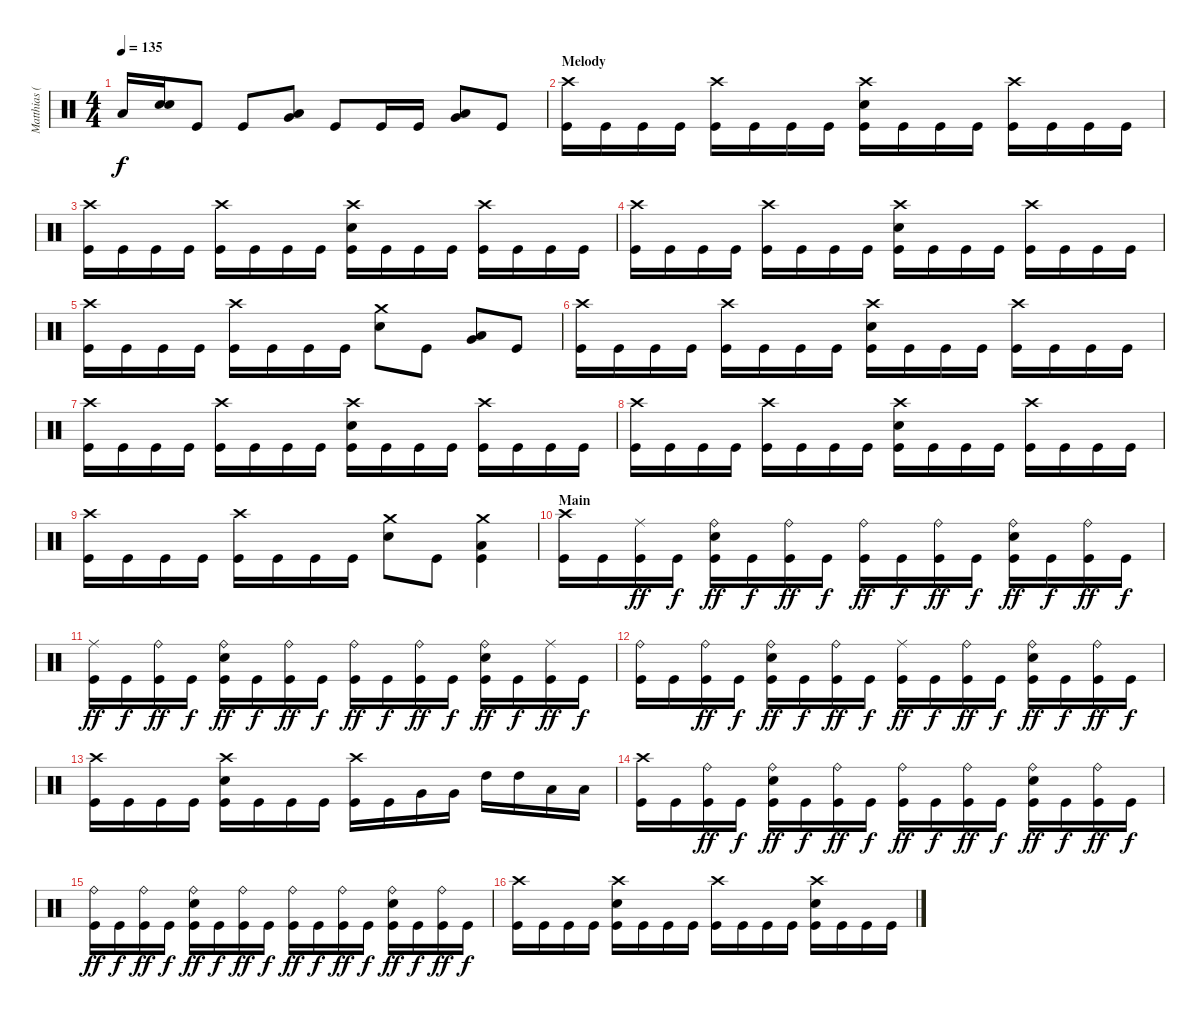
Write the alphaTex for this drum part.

\track ("Matthias (Drums)" "Matthias (") {instrument percussion}
\staff {score}
\articulation defaults
\ts (4 4)
\tempo 135
\clef neutral
\ks c "Low Tom (hit)".16{dy f}
("Electric Snare (hit)" "Electric Snare (hit)").16{bu 120} "Kick (hit)".8 "Kick (hit)".8 ("Low Tom (hit)" "Very Low Tom (hit)").8{bu 120} "Kick (hit)".8 "Kick (hit)".16 "Kick (hit)".16 ("Low Tom (hit)" "Very Low Tom (hit)").8{bu 120} "Kick (hit)".8 |
\section ("" "Melody")
("Crash high (hit)" "Kick (hit)").16 "Kick (hit)".16 "Kick (hit)".16 "Kick (hit)".16 ("Crash high (hit)" "Kick (hit)").16 "Kick (hit)".16 "Kick (hit)".16 "Kick (hit)".16 ("Crash high (hit)" "Electric Snare (hit)" "Kick (hit)").16 "Kick (hit)".16 "Kick (hit)".16 "Kick (hit)".16 ("Crash high (hit)" "Kick (hit)").16 "Kick (hit)".16 "Kick (hit)".16 "Kick (hit)".16 |
("Crash high (hit)" "Kick (hit)").16 "Kick (hit)".16 "Kick (hit)".16 "Kick (hit)".16 ("Crash high (hit)" "Kick (hit)").16 "Kick (hit)".16 "Kick (hit)".16 "Kick (hit)".16 ("Crash high (hit)" "Electric Snare (hit)" "Kick (hit)").16 "Kick (hit)".16 "Kick (hit)".16 "Kick (hit)".16 ("Crash high (hit)" "Kick (hit)").16 "Kick (hit)".16 "Kick (hit)".16 "Kick (hit)".16 |
("Crash high (hit)" "Kick (hit)").16 "Kick (hit)".16 "Kick (hit)".16 "Kick (hit)".16 ("Crash high (hit)" "Kick (hit)").16 "Kick (hit)".16 "Kick (hit)".16 "Kick (hit)".16 ("Crash high (hit)" "Electric Snare (hit)" "Kick (hit)").16 "Kick (hit)".16 "Kick (hit)".16 "Kick (hit)".16 ("Crash high (hit)" "Kick (hit)").16 "Kick (hit)".16 "Kick (hit)".16 "Kick (hit)".16 |
("Crash high (hit)" "Kick (hit)").16 "Kick (hit)".16 "Kick (hit)".16 "Kick (hit)".16 ("Crash high (hit)" "Kick (hit)").16 "Kick (hit)".16 "Kick (hit)".16 "Kick (hit)".16 ("Crash medium (hit)" "Electric Snare (hit)").8 "Kick (hit)".8 ("Low Tom (hit)" "Very Low Tom (hit)").8{bu 120} "Kick (hit)".8 |
("Crash high (hit)" "Kick (hit)").16 "Kick (hit)".16 "Kick (hit)".16 "Kick (hit)".16 ("Crash high (hit)" "Kick (hit)").16 "Kick (hit)".16 "Kick (hit)".16 "Kick (hit)".16 ("Crash high (hit)" "Electric Snare (hit)" "Kick (hit)").16 "Kick (hit)".16 "Kick (hit)".16 "Kick (hit)".16 ("Crash high (hit)" "Kick (hit)").16 "Kick (hit)".16 "Kick (hit)".16 "Kick (hit)".16 |
("Crash high (hit)" "Kick (hit)").16 "Kick (hit)".16 "Kick (hit)".16 "Kick (hit)".16 ("Crash high (hit)" "Kick (hit)").16 "Kick (hit)".16 "Kick (hit)".16 "Kick (hit)".16 ("Crash high (hit)" "Electric Snare (hit)" "Kick (hit)").16 "Kick (hit)".16 "Kick (hit)".16 "Kick (hit)".16 ("Crash high (hit)" "Kick (hit)").16 "Kick (hit)".16 "Kick (hit)".16 "Kick (hit)".16 |
("Crash high (hit)" "Kick (hit)").16 "Kick (hit)".16 "Kick (hit)".16 "Kick (hit)".16 ("Crash high (hit)" "Kick (hit)").16 "Kick (hit)".16 "Kick (hit)".16 "Kick (hit)".16 ("Crash high (hit)" "Electric Snare (hit)" "Kick (hit)").16 "Kick (hit)".16 "Kick (hit)".16 "Kick (hit)".16 ("Crash high (hit)" "Kick (hit)").16 "Kick (hit)".16 "Kick (hit)".16 "Kick (hit)".16 |
("Crash high (hit)" "Kick (hit)").16 "Kick (hit)".16 "Kick (hit)".16 "Kick (hit)".16 ("Crash high (hit)" "Kick (hit)").16 "Kick (hit)".16 "Kick (hit)".16 "Kick (hit)".16 ("Crash medium (hit)" "Electric Snare (hit)").8 "Kick (hit)".8 ("Crash medium (hit)" "Low Tom (hit)" "Kick (hit)").4 |
\section ("" "Main")
("Crash high (hit)" "Kick (hit)").16 "Kick (hit)".16 ("Ride (middle)" "Kick (hit)").16{dy ff} "Kick (hit)".16{dy f} ("Ride (bell)" "Electric Snare (hit)" "Kick (hit)").16{dy ff} "Kick (hit)".16{dy f} ("Ride (bell)" "Kick (hit)").16{dy ff} "Kick (hit)".16{dy f} ("Ride (bell)" "Kick (hit)").16{dy ff} "Kick (hit)".16{dy f} ("Ride (bell)" "Kick (hit)").16{dy ff} "Kick (hit)".16{dy f} ("Ride (bell)" "Electric Snare (hit)" "Kick (hit)").16{dy ff} "Kick (hit)".16{dy f} ("Ride (bell)" "Kick (hit)").16{dy ff} "Kick (hit)".16{dy f} |
("Ride (middle)" "Kick (hit)").16{dy ff} "Kick (hit)".16{dy f} ("Ride (bell)" "Kick (hit)").16{dy ff} "Kick (hit)".16{dy f} ("Ride (bell)" "Electric Snare (hit)" "Kick (hit)").16{dy ff} "Kick (hit)".16{dy f} ("Ride (bell)" "Kick (hit)").16{dy ff} "Kick (hit)".16{dy f} ("Ride (bell)" "Kick (hit)").16{dy ff} "Kick (hit)".16{dy f} ("Ride (bell)" "Kick (hit)").16{dy ff} "Kick (hit)".16{dy f} ("Ride (bell)" "Electric Snare (hit)" "Kick (hit)").16{dy ff} "Kick (hit)".16{dy f} ("Ride (middle)" "Kick (hit)").16{dy ff} "Kick (hit)".16{dy f} |
("Ride (bell)" "Kick (hit)").16 "Kick (hit)".16 ("Ride (bell)" "Kick (hit)").16{dy ff} "Kick (hit)".16{dy f} ("Ride (bell)" "Electric Snare (hit)" "Kick (hit)").16{dy ff} "Kick (hit)".16{dy f} ("Ride (bell)" "Kick (hit)").16{dy ff} "Kick (hit)".16{dy f} ("Ride (middle)" "Kick (hit)").16{dy ff} "Kick (hit)".16{dy f} ("Ride (bell)" "Kick (hit)").16{dy ff} "Kick (hit)".16{dy f} ("Ride (bell)" "Electric Snare (hit)" "Kick (hit)").16{dy ff} "Kick (hit)".16{dy f} ("Ride (bell)" "Kick (hit)").16{dy ff} "Kick (hit)".16{dy f} |
("Crash high (hit)" "Kick (hit)").16 "Kick (hit)".16 "Kick (hit)".16 "Kick (hit)".16 ("Crash high (hit)" "Electric Snare (hit)" "Kick (hit)").16 "Kick (hit)".16 "Kick (hit)".16 "Kick (hit)".16 ("Crash high (hit)" "Kick (hit)").16 "Kick (hit)".16 "Very Low Tom (hit)".16 "Very Low Tom (hit)".16 "High Tom (hit)".16 "High Tom (hit)".16 "Low Tom (hit)".16 "Low Tom (hit)".16 |
("Crash high (hit)" "Kick (hit)").16 "Kick (hit)".16 ("Ride (bell)" "Kick (hit)").16{dy ff} "Kick (hit)".16{dy f} ("Ride (bell)" "Electric Snare (hit)" "Kick (hit)").16{dy ff} "Kick (hit)".16{dy f} ("Ride (bell)" "Kick (hit)").16{dy ff} "Kick (hit)".16{dy f} ("Ride (bell)" "Kick (hit)").16{dy ff} "Kick (hit)".16{dy f} ("Ride (bell)" "Kick (hit)").16{dy ff} "Kick (hit)".16{dy f} ("Ride (bell)" "Electric Snare (hit)" "Kick (hit)").16{dy ff} "Kick (hit)".16{dy f} ("Ride (bell)" "Kick (hit)").16{dy ff} "Kick (hit)".16{dy f} |
("Ride (bell)" "Kick (hit)").16{dy ff} "Kick (hit)".16{dy f} ("Ride (bell)" "Kick (hit)").16{dy ff} "Kick (hit)".16{dy f} ("Ride (bell)" "Electric Snare (hit)" "Kick (hit)").16{dy ff} "Kick (hit)".16{dy f} ("Ride (bell)" "Kick (hit)").16{dy ff} "Kick (hit)".16{dy f} ("Ride (bell)" "Kick (hit)").16{dy ff} "Kick (hit)".16{dy f} ("Ride (bell)" "Kick (hit)").16{dy ff} "Kick (hit)".16{dy f} ("Ride (bell)" "Electric Snare (hit)" "Kick (hit)").16{dy ff} "Kick (hit)".16{dy f} ("Ride (bell)" "Kick (hit)").16{dy ff} "Kick (hit)".16{dy f} |
("Crash high (hit)" "Kick (hit)").16 "Kick (hit)".16 "Kick (hit)".16 "Kick (hit)".16 ("Crash high (hit)" "Electric Snare (hit)" "Kick (hit)").16 "Kick (hit)".16 "Kick (hit)".16 "Kick (hit)".16 ("Crash high (hit)" "Kick (hit)").16 "Kick (hit)".16 "Kick (hit)".16 "Kick (hit)".16 ("Crash high (hit)" "Electric Snare (hit)" "Kick (hit)").16 "Kick (hit)".16 "Kick (hit)".16 "Kick (hit)".16
